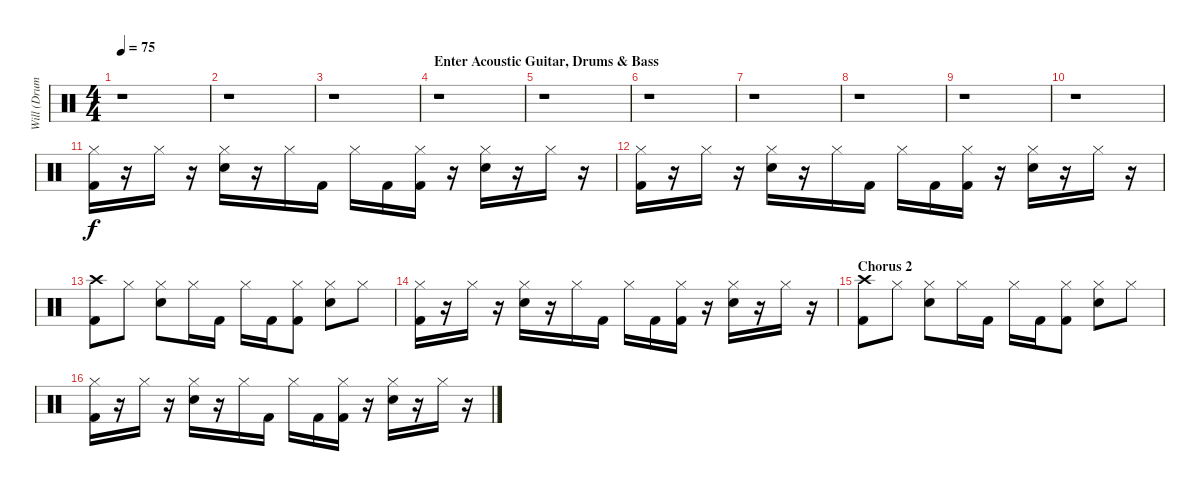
\track ("Will (Drums)" "Will (Drum") {instrument percussion}
\staff {score}
\articulation defaults
\ts (4 4)
\tempo 75
\clef neutral
\ks c
r.1{dy f} |
r.1 |
r.1 |
\section ("" "Enter Acoustic Guitar, Drums & Bass")
r.1 |
r.1 |
r.1 |
r.1 |
r.1 |
r.1 |
r.1 |
("Hi-Hat (closed)" "Kick (hit) 2").16 r.16 "Hi-Hat (closed)".16 r.16 ("Hi-Hat (closed)" "Snare (hit) 2").16 r.16 "Hi-Hat (closed)".16 "Kick (hit) 2".16 "Hi-Hat (closed)".16 "Kick (hit) 2".16 ("Hi-Hat (closed)" "Kick (hit) 2").16 r.16 ("Hi-Hat (closed)" "Snare (hit) 2").16 r.16 "Hi-Hat (closed)".16 r.16 |
("Hi-Hat (closed)" "Kick (hit) 2").16 r.16 "Hi-Hat (closed)".16 r.16 ("Hi-Hat (closed)" "Snare (hit) 2").16 r.16 "Hi-Hat (closed)".16 "Kick (hit) 2".16 "Hi-Hat (closed)".16 "Kick (hit) 2".16 ("Hi-Hat (closed)" "Kick (hit) 2").16 r.16 ("Hi-Hat (closed)" "Snare (hit) 2").16 r.16 "Hi-Hat (closed)".16 r.16 |
("Crash high (hit)" "Kick (hit) 2").8 "Hi-Hat (closed)".8 ("Hi-Hat (closed)" "Snare (hit) 2").8 "Hi-Hat (closed)".16 "Kick (hit) 2".16 "Hi-Hat (closed)".16 "Kick (hit) 2".16 ("Hi-Hat (closed)" "Kick (hit) 2").8 ("Hi-Hat (closed)" "Snare (hit) 2").8 "Hi-Hat (closed)".8 |
("Hi-Hat (closed)" "Kick (hit) 2").16 r.16 "Hi-Hat (closed)".16 r.16 ("Hi-Hat (closed)" "Snare (hit) 2").16 r.16 "Hi-Hat (closed)".16 "Kick (hit) 2".16 "Hi-Hat (closed)".16 "Kick (hit) 2".16 ("Hi-Hat (closed)" "Kick (hit) 2").16 r.16 ("Hi-Hat (closed)" "Snare (hit) 2").16 r.16 "Hi-Hat (closed)".16 r.16 |
\section ("" "Chorus 2")
("Crash high (hit)" "Kick (hit) 2").8 "Hi-Hat (closed)".8 ("Hi-Hat (closed)" "Snare (hit) 2").8 "Hi-Hat (closed)".16 "Kick (hit) 2".16 "Hi-Hat (closed)".16 "Kick (hit) 2".16 ("Hi-Hat (closed)" "Kick (hit) 2").8 ("Hi-Hat (closed)" "Snare (hit) 2").8 "Hi-Hat (closed)".8 |
("Hi-Hat (closed)" "Kick (hit) 2").16 r.16 "Hi-Hat (closed)".16 r.16 ("Hi-Hat (closed)" "Snare (hit) 2").16 r.16 "Hi-Hat (closed)".16 "Kick (hit) 2".16 "Hi-Hat (closed)".16 "Kick (hit) 2".16 ("Hi-Hat (closed)" "Kick (hit) 2").16 r.16 ("Hi-Hat (closed)" "Snare (hit) 2").16 r.16 "Hi-Hat (closed)".16 r.16
